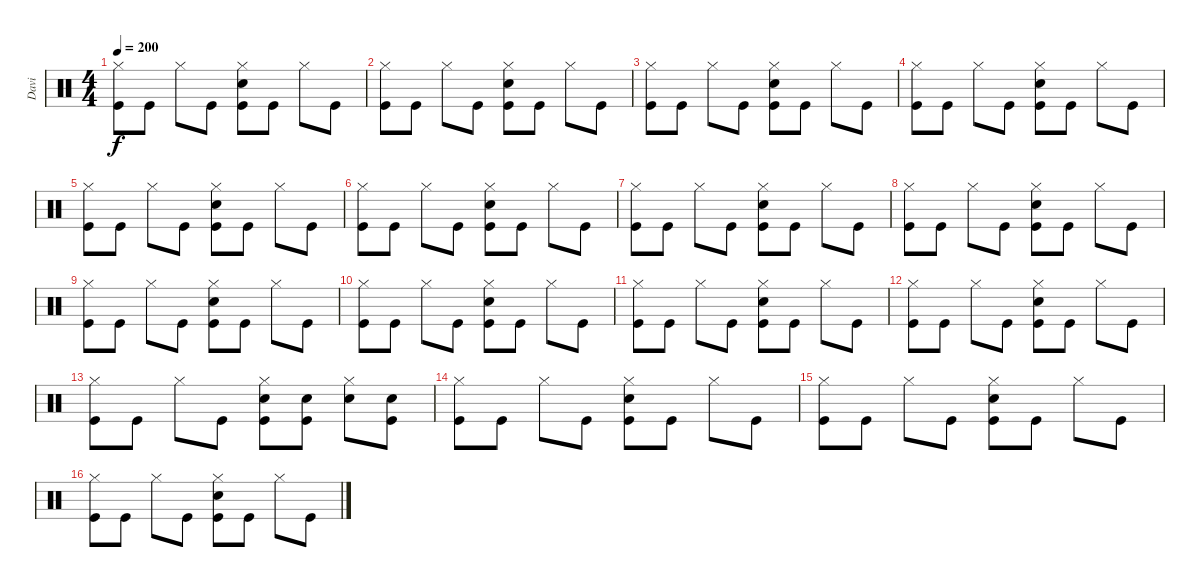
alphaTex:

\track ("Davi" "Davi") {instrument percussion}
\staff {score}
\articulation defaults
\ts (4 4)
\tempo 200
\clef neutral
\ks c
("Hi-Hat (closed)" "Kick (hit)").8{dy f} "Kick (hit)".8 "Hi-Hat (closed)".8 "Kick (hit)".8 ("Hi-Hat (closed)" "Electric Snare (hit)" "Kick (hit)").8 "Kick (hit)".8 "Hi-Hat (closed)".8 "Kick (hit)".8 |
("Hi-Hat (closed)" "Kick (hit)").8 "Kick (hit)".8 "Hi-Hat (closed)".8 "Kick (hit)".8 ("Hi-Hat (closed)" "Electric Snare (hit)" "Kick (hit)").8 "Kick (hit)".8 "Hi-Hat (closed)".8 "Kick (hit)".8 |
("Hi-Hat (closed)" "Kick (hit)").8 "Kick (hit)".8 "Hi-Hat (closed)".8 "Kick (hit)".8 ("Hi-Hat (closed)" "Electric Snare (hit)" "Kick (hit)").8 "Kick (hit)".8 "Hi-Hat (closed)".8 "Kick (hit)".8 |
("Hi-Hat (closed)" "Kick (hit)").8 "Kick (hit)".8 "Hi-Hat (closed)".8 "Kick (hit)".8 ("Hi-Hat (closed)" "Electric Snare (hit)" "Kick (hit)").8 "Kick (hit)".8 "Hi-Hat (closed)".8 "Kick (hit)".8 |
("Hi-Hat (closed)" "Kick (hit)").8 "Kick (hit)".8 "Hi-Hat (closed)".8 "Kick (hit)".8 ("Hi-Hat (closed)" "Electric Snare (hit)" "Kick (hit)").8 "Kick (hit)".8 "Hi-Hat (closed)".8 "Kick (hit)".8 |
("Hi-Hat (closed)" "Kick (hit)").8 "Kick (hit)".8 "Hi-Hat (closed)".8 "Kick (hit)".8 ("Hi-Hat (closed)" "Electric Snare (hit)" "Kick (hit)").8 "Kick (hit)".8 "Hi-Hat (closed)".8 "Kick (hit)".8 |
("Hi-Hat (closed)" "Kick (hit)").8 "Kick (hit)".8 "Hi-Hat (closed)".8 "Kick (hit)".8 ("Hi-Hat (closed)" "Electric Snare (hit)" "Kick (hit)").8 "Kick (hit)".8 "Hi-Hat (closed)".8 "Kick (hit)".8 |
("Hi-Hat (closed)" "Kick (hit)").8 "Kick (hit)".8 "Hi-Hat (closed)".8 "Kick (hit)".8 ("Hi-Hat (closed)" "Electric Snare (hit)" "Kick (hit)").8 "Kick (hit)".8 "Hi-Hat (closed)".8 "Kick (hit)".8 |
("Hi-Hat (closed)" "Kick (hit)").8 "Kick (hit)".8 "Hi-Hat (closed)".8 "Kick (hit)".8 ("Hi-Hat (closed)" "Electric Snare (hit)" "Kick (hit)").8 "Kick (hit)".8 "Hi-Hat (closed)".8 "Kick (hit)".8 |
("Hi-Hat (closed)" "Kick (hit)").8 "Kick (hit)".8 "Hi-Hat (closed)".8 "Kick (hit)".8 ("Hi-Hat (closed)" "Electric Snare (hit)" "Kick (hit)").8 "Kick (hit)".8 "Hi-Hat (closed)".8 "Kick (hit)".8 |
("Hi-Hat (closed)" "Kick (hit)").8 "Kick (hit)".8 "Hi-Hat (closed)".8 "Kick (hit)".8 ("Hi-Hat (closed)" "Electric Snare (hit)" "Kick (hit)").8 "Kick (hit)".8 "Hi-Hat (closed)".8 "Kick (hit)".8 |
("Hi-Hat (closed)" "Kick (hit)").8 "Kick (hit)".8 "Hi-Hat (closed)".8 "Kick (hit)".8 ("Hi-Hat (closed)" "Electric Snare (hit)" "Kick (hit)").8 "Kick (hit)".8 "Hi-Hat (closed)".8 "Kick (hit)".8 |
("Hi-Hat (closed)" "Kick (hit)").8 "Kick (hit)".8 "Hi-Hat (closed)".8 "Kick (hit)".8 ("Hi-Hat (closed)" "Electric Snare (hit)" "Kick (hit)").8 ("Electric Snare (hit)" "Kick (hit)").8 ("Hi-Hat (closed)" "Electric Snare (hit)").8 ("Electric Snare (hit)" "Kick (hit)").8 |
("Hi-Hat (closed)" "Kick (hit)").8 "Kick (hit)".8 "Hi-Hat (closed)".8 "Kick (hit)".8 ("Hi-Hat (closed)" "Electric Snare (hit)" "Kick (hit)").8 "Kick (hit)".8 "Hi-Hat (closed)".8 "Kick (hit)".8 |
("Hi-Hat (closed)" "Kick (hit)").8 "Kick (hit)".8 "Hi-Hat (closed)".8 "Kick (hit)".8 ("Hi-Hat (closed)" "Electric Snare (hit)" "Kick (hit)").8 "Kick (hit)".8 "Hi-Hat (closed)".8 "Kick (hit)".8 |
("Hi-Hat (closed)" "Kick (hit)").8 "Kick (hit)".8 "Hi-Hat (closed)".8 "Kick (hit)".8 ("Hi-Hat (closed)" "Electric Snare (hit)" "Kick (hit)").8 "Kick (hit)".8 "Hi-Hat (closed)".8 "Kick (hit)".8
